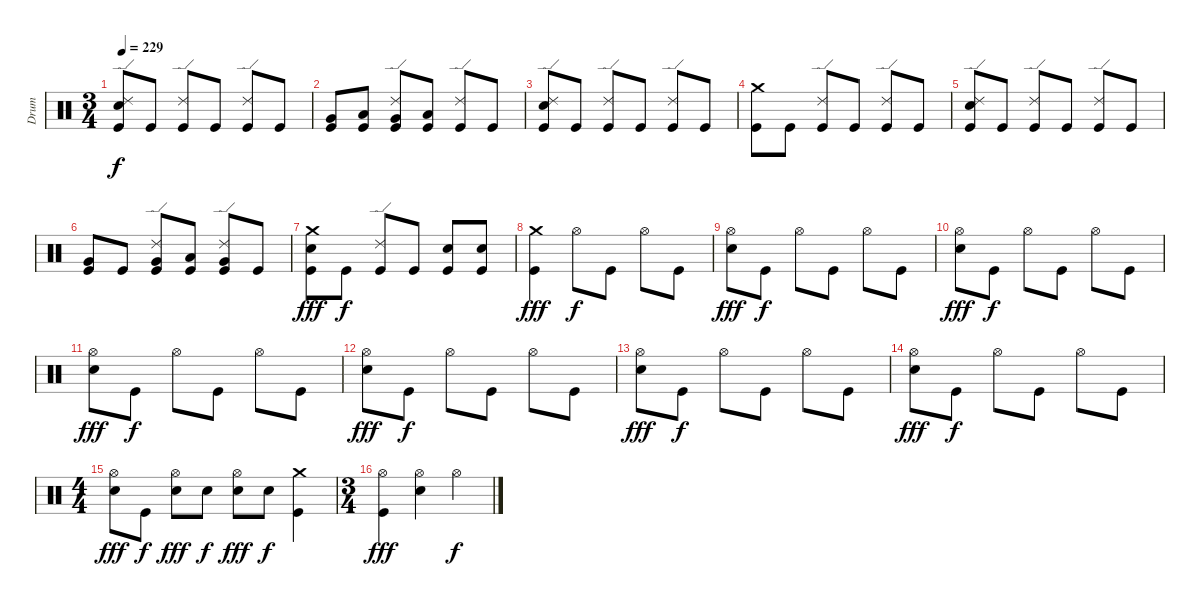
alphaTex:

\track ("Drum" "Drum") {instrument percussion}
\staff {score}
\articulation defaults
\ts (3 4)
\tempo 229
\clef neutral
\ks c
("Ride (edge) 2" "Snare (hit) 2" "Kick (hit)").8{dy f} "Kick (hit)".8 ("Ride (edge) 2" "Kick (hit)").8 "Kick (hit)".8 ("Ride (edge) 2" "Kick (hit)").8 "Kick (hit)".8 |
("Very Low Tom (hit)" "Kick (hit)").8 ("Low Floor Tom (hit)" "Kick (hit)").8 ("Ride (edge) 2" "Very Low Tom (hit)" "Kick (hit)").8 ("Low Floor Tom (hit)" "Kick (hit)").8 ("Ride (edge) 2" "Kick (hit)").8 "Kick (hit)".8 |
("Ride (edge) 2" "Snare (hit) 2" "Kick (hit)").8 "Kick (hit)".8 ("Ride (edge) 2" "Kick (hit)").8 "Kick (hit)".8 ("Ride (edge) 2" "Kick (hit)").8 "Kick (hit)".8 |
("Crash medium (hit)" "Kick (hit)").8 "Kick (hit)".8 ("Ride (edge) 2" "Kick (hit)").8 "Kick (hit)".8 ("Ride (edge) 2" "Kick (hit)").8 "Kick (hit)".8 |
("Ride (edge) 2" "Snare (hit) 2" "Kick (hit)").8 "Kick (hit)".8 ("Ride (edge) 2" "Kick (hit)").8 "Kick (hit)".8 ("Ride (edge) 2" "Kick (hit)").8 "Kick (hit)".8 |
("Very Low Tom (hit)" "Kick (hit)").8 "Kick (hit)".8 ("Ride (edge) 2" "Very Low Tom (hit)" "Kick (hit)").8 ("Low Floor Tom (hit)" "Kick (hit)").8 ("Ride (edge) 2" "Very Low Tom (hit)" "Kick (hit)").8 "Kick (hit)".8 |
("Crash medium (hit)" "Snare (hit) 2" "Kick (hit)").8{dy fff} "Kick (hit)".8{dy f} ("Ride (edge) 2" "Kick (hit)").8 "Kick (hit)".8 ("Snare (hit) 2" "Kick (hit)").8 ("Snare (hit) 2" "Kick (hit)").8 |
("Crash medium (hit)" "Kick (hit)").4{dy fff} "Hi-Hat (open)".8{dy f} "Kick (hit)".8 "Hi-Hat (open)".8 "Kick (hit)".8 |
("Hi-Hat (open)" "Snare (hit) 2").8{dy fff} "Kick (hit)".8{dy f} "Hi-Hat (open)".8 "Kick (hit)".8 "Hi-Hat (open)".8 "Kick (hit)".8 |
("Hi-Hat (open)" "Snare (hit) 2").8{dy fff} "Kick (hit)".8{dy f} "Hi-Hat (open)".8 "Kick (hit)".8 "Hi-Hat (open)".8 "Kick (hit)".8 |
("Hi-Hat (open)" "Snare (hit) 2").8{dy fff} "Kick (hit)".8{dy f} "Hi-Hat (open)".8 "Kick (hit)".8 "Hi-Hat (open)".8 "Kick (hit)".8 |
("Hi-Hat (open)" "Snare (hit) 2").8{dy fff} "Kick (hit)".8{dy f} "Hi-Hat (open)".8 "Kick (hit)".8 "Hi-Hat (open)".8 "Kick (hit)".8 |
("Hi-Hat (open)" "Snare (hit) 2").8{dy fff} "Kick (hit)".8{dy f} "Hi-Hat (open)".8 "Kick (hit)".8 "Hi-Hat (open)".8 "Kick (hit)".8 |
("Hi-Hat (open)" "Snare (hit) 2").8{dy fff} "Kick (hit)".8{dy f} "Hi-Hat (open)".8 "Kick (hit)".8 "Hi-Hat (open)".8 "Kick (hit)".8 |
\ts (4 4)
("Hi-Hat (open)" "Snare (hit) 2").8{dy fff} "Kick (hit)".8{dy f} ("Hi-Hat (open)" "Snare (hit) 2").8{dy fff} "Snare (hit) 2".8{dy f} ("Hi-Hat (open)" "Snare (hit) 2").8{dy fff} "Snare (hit) 2".8{dy f} ("Crash medium (hit)" "Kick (hit)").4 |
\ts (3 4)
("Hi-Hat (open)" "Kick (hit)").4{dy fff} ("Hi-Hat (open)" "Snare (hit) 2").4 "Hi-Hat (open)".4{dy f}
